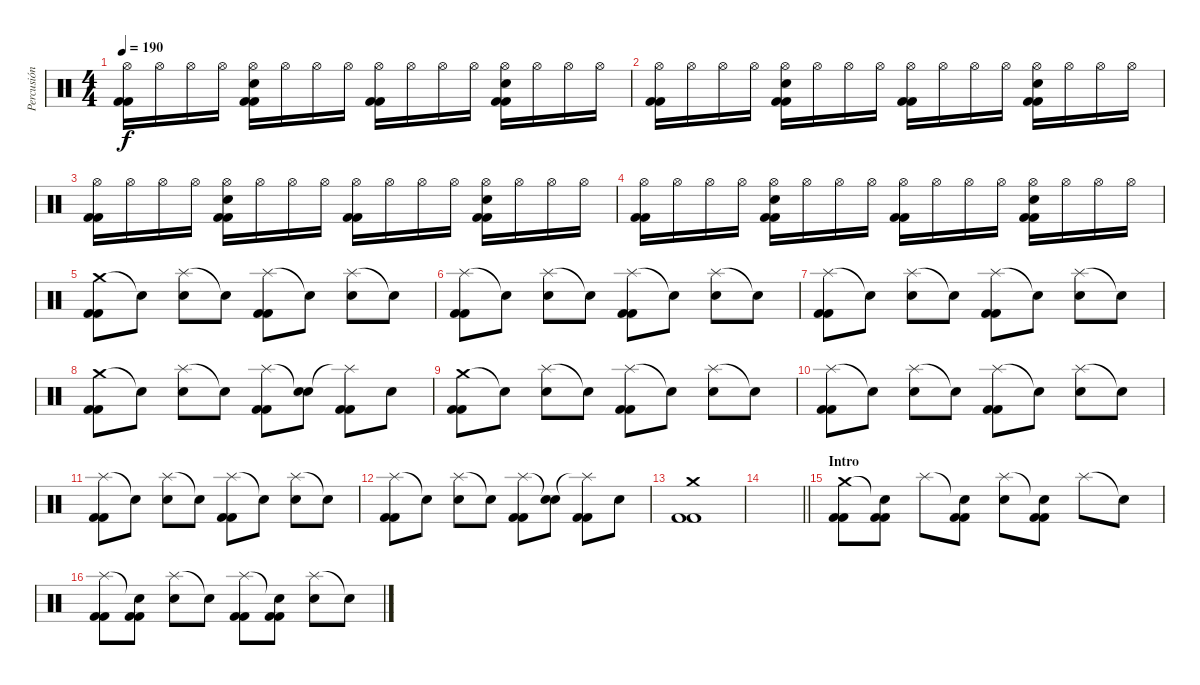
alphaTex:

\track ("Percusión" "Percusión") {instrument percussion}
\staff {score}
\articulation defaults
\ts (4 4)
\tempo 190
\clef neutral
\ks c
("Hi-Hat (open)" "Kick (hit) 2" "Kick (hit) 2").16{dy f} "Hi-Hat (open)".16 "Hi-Hat (open)".16 "Hi-Hat (open)".16 ("Hi-Hat (open)" "Electric Snare (hit)" "Kick (hit) 2" "Kick (hit) 2").16 "Hi-Hat (open)".16 "Hi-Hat (open)".16 "Hi-Hat (open)".16 ("Hi-Hat (open)" "Kick (hit) 2" "Kick (hit) 2").16 "Hi-Hat (open)".16 "Hi-Hat (open)".16 "Hi-Hat (open)".16 ("Hi-Hat (open)" "Electric Snare (hit)" "Kick (hit) 2" "Kick (hit) 2").16 "Hi-Hat (open)".16 "Hi-Hat (open)".16 "Hi-Hat (open)".16 |
("Hi-Hat (open)" "Kick (hit) 2" "Kick (hit) 2").16 "Hi-Hat (open)".16 "Hi-Hat (open)".16 "Hi-Hat (open)".16 ("Hi-Hat (open)" "Electric Snare (hit)" "Kick (hit) 2" "Kick (hit) 2").16 "Hi-Hat (open)".16 "Hi-Hat (open)".16 "Hi-Hat (open)".16 ("Hi-Hat (open)" "Kick (hit) 2" "Kick (hit) 2").16 "Hi-Hat (open)".16 "Hi-Hat (open)".16 "Hi-Hat (open)".16 ("Hi-Hat (open)" "Electric Snare (hit)" "Kick (hit) 2" "Kick (hit) 2").16 "Hi-Hat (open)".16 "Hi-Hat (open)".16 "Hi-Hat (open)".16 |
("Hi-Hat (open)" "Kick (hit) 2" "Kick (hit) 2").16 "Hi-Hat (open)".16 "Hi-Hat (open)".16 "Hi-Hat (open)".16 ("Hi-Hat (open)" "Electric Snare (hit)" "Kick (hit) 2" "Kick (hit) 2").16 "Hi-Hat (open)".16 "Hi-Hat (open)".16 "Hi-Hat (open)".16 ("Hi-Hat (open)" "Kick (hit) 2" "Kick (hit) 2").16 "Hi-Hat (open)".16 "Hi-Hat (open)".16 "Hi-Hat (open)".16 ("Hi-Hat (open)" "Electric Snare (hit)" "Kick (hit) 2" "Kick (hit) 2").16 "Hi-Hat (open)".16 "Hi-Hat (open)".16 "Hi-Hat (open)".16 |
("Hi-Hat (open)" "Kick (hit) 2" "Kick (hit) 2").16 "Hi-Hat (open)".16 "Hi-Hat (open)".16 "Hi-Hat (open)".16 ("Hi-Hat (open)" "Electric Snare (hit)" "Kick (hit) 2" "Kick (hit) 2").16 "Hi-Hat (open)".16 "Hi-Hat (open)".16 "Hi-Hat (open)".16 ("Hi-Hat (open)" "Kick (hit) 2" "Kick (hit) 2").16 "Hi-Hat (open)".16 "Hi-Hat (open)".16 "Hi-Hat (open)".16 ("Hi-Hat (open)" "Electric Snare (hit)" "Kick (hit) 2" "Kick (hit) 2").16 "Hi-Hat (open)".16 "Hi-Hat (open)".16 "Hi-Hat (open)".16 |
("Crash medium (hit)" "Kick (hit) 2" "Kick (hit) 2").8 "Snare (hit)"{t}.8 ("Splash (hit)" "Electric Snare (hit)").8 "Snare (hit)"{t}.8 ("Splash (hit)" "Kick (hit) 2" "Kick (hit) 2").8 "Snare (hit)"{t}.8 ("Splash (hit)" "Electric Snare (hit)").8 "Snare (hit)"{t}.8 |
("Splash (hit)" "Kick (hit) 2" "Kick (hit) 2").8 "Snare (hit)"{t}.8 ("Splash (hit)" "Electric Snare (hit)").8 "Snare (hit)"{t}.8 ("Splash (hit)" "Kick (hit) 2" "Kick (hit) 2").8 "Snare (hit)"{t}.8 ("Splash (hit)" "Electric Snare (hit)").8 "Snare (hit)"{t}.8 |
("Splash (hit)" "Kick (hit) 2" "Kick (hit) 2").8 "Snare (hit)"{t}.8 ("Splash (hit)" "Electric Snare (hit)").8 "Snare (hit)"{t}.8 ("Splash (hit)" "Kick (hit) 2" "Kick (hit) 2").8 "Snare (hit)"{t}.8 ("Splash (hit)" "Electric Snare (hit)").8 "Snare (hit)"{t}.8 |
("Crash medium (hit)" "Kick (hit) 2" "Kick (hit) 2").8 "Snare (hit)"{t}.8 ("Splash (hit)" "Electric Snare (hit)").8 "Snare (hit)"{t}.8 ("Splash (hit)" "Kick (hit) 2" "Kick (hit) 2").8 ("Snare (hit)"{t} "Electric Snare (hit)").8 ("Splash (hit)"{t} "Kick (hit) 2" "Kick (hit) 2").8 "Electric Snare (hit)".8 |
("Crash medium (hit)" "Kick (hit) 2" "Kick (hit) 2").8 "Snare (hit)"{t}.8 ("Splash (hit)" "Electric Snare (hit)").8 "Snare (hit)"{t}.8 ("Splash (hit)" "Kick (hit) 2" "Kick (hit) 2").8 "Snare (hit)"{t}.8 ("Splash (hit)" "Electric Snare (hit)").8 "Snare (hit)"{t}.8 |
("Splash (hit)" "Kick (hit) 2" "Kick (hit) 2").8 "Snare (hit)"{t}.8 ("Splash (hit)" "Electric Snare (hit)").8 "Snare (hit)"{t}.8 ("Splash (hit)" "Kick (hit) 2" "Kick (hit) 2").8 "Snare (hit)"{t}.8 ("Splash (hit)" "Electric Snare (hit)").8 "Snare (hit)"{t}.8 |
("Splash (hit)" "Kick (hit) 2" "Kick (hit) 2").8 "Snare (hit)"{t}.8 ("Splash (hit)" "Electric Snare (hit)").8 "Snare (hit)"{t}.8 ("Splash (hit)" "Kick (hit) 2" "Kick (hit) 2").8 "Snare (hit)"{t}.8 ("Splash (hit)" "Electric Snare (hit)").8 "Snare (hit)"{t}.8 |
("Splash (hit)" "Kick (hit) 2" "Kick (hit) 2").8 "Snare (hit)"{t}.8 ("Splash (hit)" "Electric Snare (hit)").8 "Snare (hit)"{t}.8 ("Splash (hit)" "Kick (hit) 2" "Kick (hit) 2").8 ("Snare (hit)"{t} "Electric Snare (hit)").8 ("Splash (hit)"{t} "Kick (hit) 2" "Kick (hit) 2").8 "Electric Snare (hit)".8 |
("Crash medium (hit)" "Kick (hit) 2" "Kick (hit) 2").1 |
\barLineRight lightlight
|
\section ("" "Intro")
("Crash medium (hit)" "Kick (hit) 2" "Kick (hit) 2").8 ("Snare (hit)"{t} "Kick (hit) 2" "Kick (hit) 2").8 "Splash (hit)".8 ("Snare (hit)"{t} "Kick (hit) 2" "Kick (hit) 2").8 ("Splash (hit)" "Electric Snare (hit)").8 ("Snare (hit)"{t} "Kick (hit) 2" "Kick (hit) 2").8 "Splash (hit)".8 "Snare (hit)"{t}.8 |
("Splash (hit)" "Kick (hit) 2" "Kick (hit) 2").8 ("Snare (hit)"{t} "Kick (hit) 2" "Kick (hit) 2").8 ("Splash (hit)" "Electric Snare (hit)").8 "Snare (hit)"{t}.8 ("Splash (hit)" "Kick (hit) 2" "Kick (hit) 2").8 ("Snare (hit)"{t} "Kick (hit) 2" "Kick (hit) 2").8 ("Splash (hit)" "Electric Snare (hit)").8 "Snare (hit)"{t}.8
